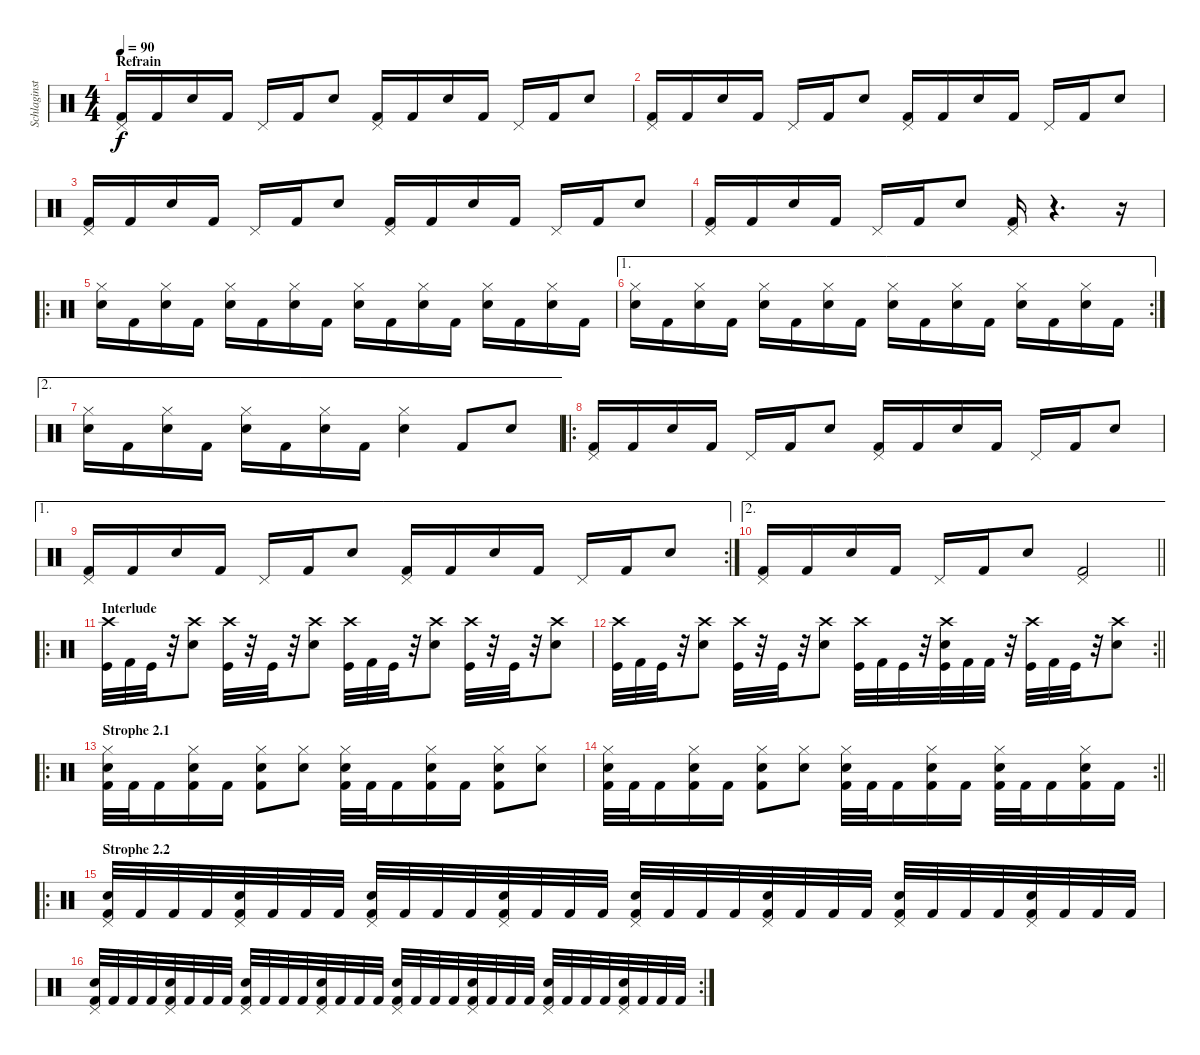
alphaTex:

\track ("Schlaginstrumente - Auswahl" "Schlaginst") {instrument percussion}
\staff {score}
\articulation defaults
\ts (4 4)
\section ("" "Refrain")
\tempo 90
\clef neutral
\ks c
("Pedal Hi-Hat (hit)" "Kick (hit) 2").16{dy f} "Kick (hit) 2".16 "Snare (hit) 2".16 "Kick (hit) 2".16 "Pedal Hi-Hat (hit)".16 "Kick (hit) 2".16 "Snare (hit) 2".8 ("Pedal Hi-Hat (hit)" "Kick (hit) 2").16 "Kick (hit) 2".16 "Snare (hit) 2".16 "Kick (hit) 2".16 "Pedal Hi-Hat (hit)".16 "Kick (hit) 2".16 "Snare (hit) 2".8 |
("Pedal Hi-Hat (hit)" "Kick (hit) 2").16 "Kick (hit) 2".16 "Snare (hit) 2".16 "Kick (hit) 2".16 "Pedal Hi-Hat (hit)".16 "Kick (hit) 2".16 "Snare (hit) 2".8 ("Pedal Hi-Hat (hit)" "Kick (hit) 2").16 "Kick (hit) 2".16 "Snare (hit) 2".16 "Kick (hit) 2".16 "Pedal Hi-Hat (hit)".16 "Kick (hit) 2".16 "Snare (hit) 2".8 |
("Pedal Hi-Hat (hit)" "Kick (hit) 2").16 "Kick (hit) 2".16 "Snare (hit) 2".16 "Kick (hit) 2".16 "Pedal Hi-Hat (hit)".16 "Kick (hit) 2".16 "Snare (hit) 2".8 ("Pedal Hi-Hat (hit)" "Kick (hit) 2").16 "Kick (hit) 2".16 "Snare (hit) 2".16 "Kick (hit) 2".16 "Pedal Hi-Hat (hit)".16 "Kick (hit) 2".16 "Snare (hit) 2".8 |
("Pedal Hi-Hat (hit)" "Kick (hit) 2").16 "Kick (hit) 2".16 "Snare (hit) 2".16 "Kick (hit) 2".16 "Pedal Hi-Hat (hit)".16 "Kick (hit) 2".16 "Snare (hit) 2".8 ("Pedal Hi-Hat (hit)" "Kick (hit) 2").16 r.4{d} r.16 |
\ro
("Hi-Hat (closed)" "Snare (hit) 2").16 "Kick (hit) 2".16 ("Hi-Hat (closed)" "Snare (hit) 2").16 "Kick (hit) 2".16 ("Hi-Hat (closed)" "Snare (hit) 2").16 "Kick (hit) 2".16 ("Hi-Hat (closed)" "Snare (hit) 2").16 "Kick (hit) 2".16 ("Hi-Hat (closed)" "Snare (hit) 2").16 "Kick (hit) 2".16 ("Hi-Hat (closed)" "Snare (hit) 2").16 "Kick (hit) 2".16 ("Hi-Hat (closed)" "Snare (hit) 2").16 "Kick (hit) 2".16 ("Hi-Hat (closed)" "Snare (hit) 2").16 "Kick (hit) 2".16 |
\ae 1
\rc 2
("Hi-Hat (closed)" "Snare (hit) 2").16 "Kick (hit) 2".16 ("Hi-Hat (closed)" "Snare (hit) 2").16 "Kick (hit) 2".16 ("Hi-Hat (closed)" "Snare (hit) 2").16 "Kick (hit) 2".16 ("Hi-Hat (closed)" "Snare (hit) 2").16 "Kick (hit) 2".16 ("Hi-Hat (closed)" "Snare (hit) 2").16 "Kick (hit) 2".16 ("Hi-Hat (closed)" "Snare (hit) 2").16 "Kick (hit) 2".16 ("Hi-Hat (closed)" "Snare (hit) 2").16 "Kick (hit) 2".16 ("Hi-Hat (closed)" "Snare (hit) 2").16 "Kick (hit) 2".16 |
\ae 2
("Hi-Hat (closed)" "Snare (hit) 2").16 "Kick (hit) 2".16 ("Hi-Hat (closed)" "Snare (hit) 2").16 "Kick (hit) 2".16 ("Hi-Hat (closed)" "Snare (hit) 2").16 "Kick (hit) 2".16 ("Hi-Hat (closed)" "Snare (hit) 2").16 "Kick (hit) 2".16 ("Hi-Hat (closed)" "Snare (hit) 2").4 "Kick (hit) 2".8 "Snare (hit) 2".8 |
\ro
("Pedal Hi-Hat (hit)" "Kick (hit) 2").16 "Kick (hit) 2".16 "Snare (hit) 2".16 "Kick (hit) 2".16 "Pedal Hi-Hat (hit)".16 "Kick (hit) 2".16 "Snare (hit) 2".8 ("Pedal Hi-Hat (hit)" "Kick (hit) 2").16 "Kick (hit) 2".16 "Snare (hit) 2".16 "Kick (hit) 2".16 "Pedal Hi-Hat (hit)".16 "Kick (hit) 2".16 "Snare (hit) 2".8 |
\ae 1
\rc 2
("Pedal Hi-Hat (hit)" "Kick (hit) 2").16 "Kick (hit) 2".16 "Snare (hit) 2".16 "Kick (hit) 2".16 "Pedal Hi-Hat (hit)".16 "Kick (hit) 2".16 "Snare (hit) 2".8 ("Pedal Hi-Hat (hit)" "Kick (hit) 2").16 "Kick (hit) 2".16 "Snare (hit) 2".16 "Kick (hit) 2".16 "Pedal Hi-Hat (hit)".16 "Kick (hit) 2".16 "Snare (hit) 2".8 |
\ae 2
\barLineRight lightlight
("Pedal Hi-Hat (hit)" "Kick (hit) 2").16 "Kick (hit) 2".16 "Snare (hit) 2".16 "Kick (hit) 2".16 "Pedal Hi-Hat (hit)".16 "Kick (hit) 2".16 "Snare (hit) 2".8 ("Pedal Hi-Hat (hit)" "Kick (hit) 2").2 |
\ro
\section ("" "Interlude")
("Crash high (hit)" "Kick (hit)").32 "Kick (hit) 2".32 "Kick (hit)".32 r.32 ("Crash high (hit)" "Snare (hit) 2").8 ("Crash high (hit)" "Kick (hit)").32 r.32 "Kick (hit)".32 r.32 ("Crash high (hit)" "Snare (hit) 2").8 ("Crash high (hit)" "Kick (hit)").32 "Kick (hit) 2".32 "Kick (hit)".32 r.32 ("Crash high (hit)" "Snare (hit) 2").8 ("Crash high (hit)" "Kick (hit)").32 r.32 "Kick (hit)".32 r.32 ("Crash high (hit)" "Snare (hit) 2").8 |
\rc 2
\barLineRight lightlight
("Crash high (hit)" "Kick (hit)").32 "Kick (hit) 2".32 "Kick (hit)".32 r.32 ("Crash high (hit)" "Snare (hit) 2").8 ("Crash high (hit)" "Kick (hit)").32 r.32 "Kick (hit)".32 r.32 ("Crash high (hit)" "Snare (hit) 2").8 ("Crash high (hit)" "Kick (hit)").32 "Kick (hit) 2".32 "Kick (hit)".32 r.32 ("Crash high (hit)" "Snare (hit) 2" "Kick (hit)").32 "Kick (hit) 2".32 "Kick (hit) 2".32 r.32 ("Crash high (hit)" "Kick (hit)").32 "Kick (hit) 2".32 "Kick (hit)".32 r.32 ("Crash high (hit)" "Snare (hit) 2").8 |
\ro
\section ("" "Strophe 2.1")
("Hi-Hat (closed)" "Snare (hit) 2" "Kick (hit) 2").32 "Kick (hit) 2".32 "Kick (hit) 2".16 ("Hi-Hat (closed)" "Snare (hit) 2" "Kick (hit) 2").16 "Kick (hit) 2".16 ("Hi-Hat (closed)" "Snare (hit) 2" "Kick (hit) 2").8 ("Hi-Hat (closed)" "Snare (hit) 2").8 ("Hi-Hat (closed)" "Snare (hit) 2" "Kick (hit) 2").32 "Kick (hit) 2".32 "Kick (hit) 2".16 ("Hi-Hat (closed)" "Snare (hit) 2" "Kick (hit) 2").16 "Kick (hit) 2".16 ("Hi-Hat (closed)" "Snare (hit) 2" "Kick (hit) 2").8 ("Hi-Hat (closed)" "Snare (hit) 2").8 |
\rc 2
\barLineRight lightlight
("Hi-Hat (closed)" "Snare (hit) 2" "Kick (hit) 2").32 "Kick (hit) 2".32 "Kick (hit) 2".16 ("Hi-Hat (closed)" "Snare (hit) 2" "Kick (hit) 2").16 "Kick (hit) 2".16 ("Hi-Hat (closed)" "Snare (hit) 2" "Kick (hit) 2").8 ("Hi-Hat (closed)" "Snare (hit) 2").8 ("Hi-Hat (closed)" "Snare (hit) 2" "Kick (hit) 2").32 "Kick (hit) 2".32 "Kick (hit) 2".16 ("Hi-Hat (closed)" "Snare (hit) 2" "Kick (hit) 2").16 "Kick (hit) 2".16 ("Hi-Hat (closed)" "Snare (hit) 2" "Kick (hit) 2").32 "Kick (hit) 2".32 "Kick (hit) 2".16 ("Hi-Hat (closed)" "Snare (hit) 2" "Kick (hit) 2").16 "Kick (hit) 2".16 |
\ro
\section ("" "Strophe 2.2")
("Pedal Hi-Hat (hit)" "Snare (hit) 2" "Kick (hit) 2").32 "Kick (hit) 2".32 "Kick (hit) 2".32 "Kick (hit) 2".32 ("Pedal Hi-Hat (hit)" "Snare (hit) 2" "Kick (hit) 2").32 "Kick (hit) 2".32 "Kick (hit) 2".32 "Kick (hit) 2".32 ("Pedal Hi-Hat (hit)" "Snare (hit) 2" "Kick (hit) 2").32 "Kick (hit) 2".32 "Kick (hit) 2".32 "Kick (hit) 2".32 ("Pedal Hi-Hat (hit)" "Snare (hit) 2" "Kick (hit) 2").32 "Kick (hit) 2".32 "Kick (hit) 2".32 "Kick (hit) 2".32 ("Pedal Hi-Hat (hit)" "Snare (hit) 2" "Kick (hit) 2").32 "Kick (hit) 2".32 "Kick (hit) 2".32 "Kick (hit) 2".32 ("Pedal Hi-Hat (hit)" "Snare (hit) 2" "Kick (hit) 2").32 "Kick (hit) 2".32 "Kick (hit) 2".32 "Kick (hit) 2".32 ("Pedal Hi-Hat (hit)" "Snare (hit) 2" "Kick (hit) 2").32 "Kick (hit) 2".32 "Kick (hit) 2".32 "Kick (hit) 2".32 ("Pedal Hi-Hat (hit)" "Snare (hit) 2" "Kick (hit) 2").32 "Kick (hit) 2".32 "Kick (hit) 2".32 "Kick (hit) 2".32 |
\rc 2
("Pedal Hi-Hat (hit)" "Snare (hit) 2" "Kick (hit) 2").32 "Kick (hit) 2".32 "Kick (hit) 2".32 "Kick (hit) 2".32 ("Pedal Hi-Hat (hit)" "Snare (hit) 2" "Kick (hit) 2").32 "Kick (hit) 2".32 "Kick (hit) 2".32 "Kick (hit) 2".32 ("Pedal Hi-Hat (hit)" "Snare (hit) 2" "Kick (hit) 2").32 "Kick (hit) 2".32 "Kick (hit) 2".32 "Kick (hit) 2".32 ("Pedal Hi-Hat (hit)" "Snare (hit) 2" "Kick (hit) 2").32 "Kick (hit) 2".32 "Kick (hit) 2".32 "Kick (hit) 2".32 ("Pedal Hi-Hat (hit)" "Snare (hit) 2" "Kick (hit) 2").32 "Kick (hit) 2".32 "Kick (hit) 2".32 "Kick (hit) 2".32 ("Pedal Hi-Hat (hit)" "Snare (hit) 2" "Kick (hit) 2").32 "Kick (hit) 2".32 "Kick (hit) 2".32 "Kick (hit) 2".32 ("Pedal Hi-Hat (hit)" "Snare (hit) 2" "Kick (hit) 2").32 "Kick (hit) 2".32 "Kick (hit) 2".32 "Kick (hit) 2".32 ("Pedal Hi-Hat (hit)" "Snare (hit) 2" "Kick (hit) 2").32 "Kick (hit) 2".32 "Kick (hit) 2".32 "Kick (hit) 2".32
